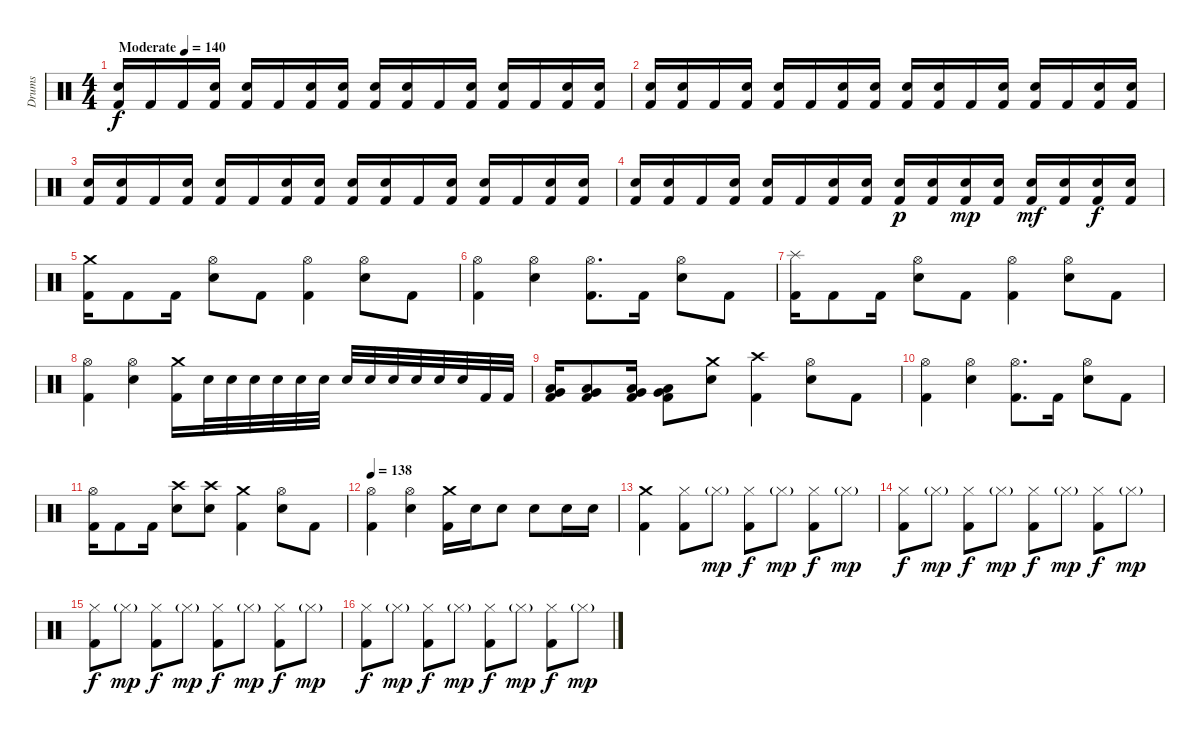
\track ("Drums" "Drums") {instrument percussion}
\staff {score}
\articulation defaults
\ts (4 4)
\tempo (140 "Moderate")
\clef neutral
\ks c
("Electric Snare (hit)" "Kick (hit) 2").16{dy f} "Kick (hit) 2".16 "Kick (hit) 2".16 ("Electric Snare (hit)" "Kick (hit) 2").16 ("Electric Snare (hit)" "Kick (hit) 2").16 "Kick (hit) 2".16 ("Electric Snare (hit)" "Kick (hit) 2").16 ("Electric Snare (hit)" "Kick (hit) 2").16 ("Electric Snare (hit)" "Kick (hit) 2").16 ("Electric Snare (hit)" "Kick (hit) 2").16 "Kick (hit) 2".16 ("Electric Snare (hit)" "Kick (hit) 2").16 ("Electric Snare (hit)" "Kick (hit) 2").16 "Kick (hit) 2".16 ("Electric Snare (hit)" "Kick (hit) 2").16 ("Electric Snare (hit)" "Kick (hit) 2").16 |
("Electric Snare (hit)" "Kick (hit) 2").16 ("Electric Snare (hit)" "Kick (hit) 2").16 "Kick (hit) 2".16 ("Electric Snare (hit)" "Kick (hit) 2").16 ("Electric Snare (hit)" "Kick (hit) 2").16 "Kick (hit) 2".16 ("Electric Snare (hit)" "Kick (hit) 2").16 ("Electric Snare (hit)" "Kick (hit) 2").16 ("Electric Snare (hit)" "Kick (hit) 2").16 ("Electric Snare (hit)" "Kick (hit) 2").16 "Kick (hit) 2".16 ("Electric Snare (hit)" "Kick (hit) 2").16 ("Electric Snare (hit)" "Kick (hit) 2").16 "Kick (hit) 2".16 ("Electric Snare (hit)" "Kick (hit) 2").16 ("Electric Snare (hit)" "Kick (hit) 2").16 |
("Electric Snare (hit)" "Kick (hit) 2").16 ("Electric Snare (hit)" "Kick (hit) 2").16 "Kick (hit) 2".16 ("Electric Snare (hit)" "Kick (hit) 2").16 ("Electric Snare (hit)" "Kick (hit) 2").16 "Kick (hit) 2".16 ("Electric Snare (hit)" "Kick (hit) 2").16 ("Electric Snare (hit)" "Kick (hit) 2").16 ("Electric Snare (hit)" "Kick (hit) 2").16 ("Electric Snare (hit)" "Kick (hit) 2").16 "Kick (hit) 2".16 ("Electric Snare (hit)" "Kick (hit) 2").16 ("Electric Snare (hit)" "Kick (hit) 2").16 "Kick (hit) 2".16 ("Electric Snare (hit)" "Kick (hit) 2").16 ("Electric Snare (hit)" "Kick (hit) 2").16 |
("Electric Snare (hit)" "Kick (hit) 2").16 ("Electric Snare (hit)" "Kick (hit) 2").16 "Kick (hit) 2".16 ("Electric Snare (hit)" "Kick (hit) 2").16 ("Electric Snare (hit)" "Kick (hit) 2").16 "Kick (hit) 2".16 ("Electric Snare (hit)" "Kick (hit) 2").16 ("Electric Snare (hit)" "Kick (hit) 2").16 ("Electric Snare (hit)" "Kick (hit) 2").16{dy p} ("Electric Snare (hit)" "Kick (hit) 2").16 ("Electric Snare (hit)" "Kick (hit) 2").16{dy mp} ("Electric Snare (hit)" "Kick (hit) 2").16 ("Electric Snare (hit)" "Kick (hit) 2").16{dy mf} ("Electric Snare (hit)" "Kick (hit) 2").16 ("Electric Snare (hit)" "Kick (hit) 2").16{dy f} ("Electric Snare (hit)" "Kick (hit) 2").16 |
("Crash medium (hit)" "Kick (hit) 2").16 "Kick (hit) 2".8 "Kick (hit) 2".16 ("Hi-Hat (open)" "Electric Snare (hit)").8 "Kick (hit) 2".8 ("Hi-Hat (open)" "Kick (hit) 2").4 ("Hi-Hat (open)" "Electric Snare (hit)").8 "Kick (hit) 2".8 |
("Hi-Hat (open)" "Kick (hit) 2").4 ("Hi-Hat (open)" "Electric Snare (hit)").4 ("Hi-Hat (open)" "Kick (hit) 2").8{d} "Kick (hit) 2".16 ("Hi-Hat (open)" "Electric Snare (hit)").8 "Kick (hit) 2".8 |
("Splash (hit)" "Kick (hit) 2").16 "Kick (hit) 2".8 "Kick (hit) 2".16 ("Hi-Hat (open)" "Electric Snare (hit)").8 "Kick (hit) 2".8 ("Hi-Hat (open)" "Kick (hit) 2").4 ("Hi-Hat (open)" "Electric Snare (hit)").8 "Kick (hit) 2".8 |
("Hi-Hat (open)" "Kick (hit) 2").4 ("Hi-Hat (open)" "Electric Snare (hit)").4 ("Crash medium (hit)" "Kick (hit) 2").16 "Electric Snare (hit)".32 "Electric Snare (hit)".32 "Electric Snare (hit)".32 "Electric Snare (hit)".32 "Electric Snare (hit)".32 "Electric Snare (hit)".32 "Electric Snare (hit)".32 "Electric Snare (hit)".32 "Electric Snare (hit)".32 "Electric Snare (hit)".32 "Electric Snare (hit)".32 "Electric Snare (hit)".32 "Kick (hit) 2".32 "Kick (hit) 2".32 |
("Low Floor Tom (hit)" "Very Low Tom (hit)" "Kick (hit) 2").16 ("Low Floor Tom (hit)" "Very Low Tom (hit)" "Kick (hit) 2").8 ("Low Floor Tom (hit)" "Very Low Tom (hit)" "Kick (hit) 2").16 ("Low Floor Tom (hit)" "Very Low Tom (hit)" "Kick (hit) 2").8 ("Crash medium (hit)" "Electric Snare (hit)").8 ("Crash high (hit)" "Kick (hit) 2").4 ("Hi-Hat (open)" "Electric Snare (hit)").8 "Kick (hit) 2".8 |
("Hi-Hat (open)" "Kick (hit) 2").4 ("Hi-Hat (open)" "Electric Snare (hit)").4 ("Hi-Hat (open)" "Kick (hit) 2").8{d} "Kick (hit) 2".16 ("Hi-Hat (open)" "Electric Snare (hit)").8 "Kick (hit) 2".8 |
("Hi-Hat (open)" "Kick (hit) 2").16 "Kick (hit) 2".8 "Kick (hit) 2".16 ("Crash high (hit)" "Electric Snare (hit)").8 ("Crash high (hit)" "Electric Snare (hit)").8 ("Crash medium (hit)" "Kick (hit) 2").4 ("Hi-Hat (open)" "Electric Snare (hit)").8 "Kick (hit) 2".8 |
\tempo 138
("Hi-Hat (open)" "Kick (hit) 2").4 ("Hi-Hat (open)" "Electric Snare (hit)").4 ("Crash medium (hit)" "Kick (hit) 2").16 "Electric Snare (hit)".16 "Electric Snare (hit)".8 "Electric Snare (hit)".8 "Electric Snare (hit)".16 "Electric Snare (hit)".16 |
("Crash medium (hit)" "Kick (hit) 2").4 ("Hi-Hat (closed)" "Kick (hit) 2").8 "Hi-Hat (closed)"{g}.8{dy mp} ("Hi-Hat (closed)" "Kick (hit) 2").8{dy f} "Hi-Hat (closed)"{g}.8{dy mp} ("Hi-Hat (closed)" "Kick (hit) 2").8{dy f} "Hi-Hat (closed)"{g}.8{dy mp} |
("Hi-Hat (closed)" "Kick (hit) 2").8{dy f} "Hi-Hat (closed)"{g}.8{dy mp} ("Hi-Hat (closed)" "Kick (hit) 2").8{dy f} "Hi-Hat (closed)"{g}.8{dy mp} ("Hi-Hat (closed)" "Kick (hit) 2").8{dy f} "Hi-Hat (closed)"{g}.8{dy mp} ("Hi-Hat (closed)" "Kick (hit) 2").8{dy f} "Hi-Hat (closed)"{g}.8{dy mp} |
("Hi-Hat (closed)" "Kick (hit) 2").8{dy f} "Hi-Hat (closed)"{g}.8{dy mp} ("Hi-Hat (closed)" "Kick (hit) 2").8{dy f} "Hi-Hat (closed)"{g}.8{dy mp} ("Hi-Hat (closed)" "Kick (hit) 2").8{dy f} "Hi-Hat (closed)"{g}.8{dy mp} ("Hi-Hat (closed)" "Kick (hit) 2").8{dy f} "Hi-Hat (closed)"{g}.8{dy mp} |
("Hi-Hat (closed)" "Kick (hit) 2").8{dy f} "Hi-Hat (closed)"{g}.8{dy mp} ("Hi-Hat (closed)" "Kick (hit) 2").8{dy f} "Hi-Hat (closed)"{g}.8{dy mp} ("Hi-Hat (closed)" "Kick (hit) 2").8{dy f} "Hi-Hat (closed)"{g}.8{dy mp} ("Hi-Hat (closed)" "Kick (hit) 2").8{dy f} "Hi-Hat (closed)"{g}.8{dy mp}
